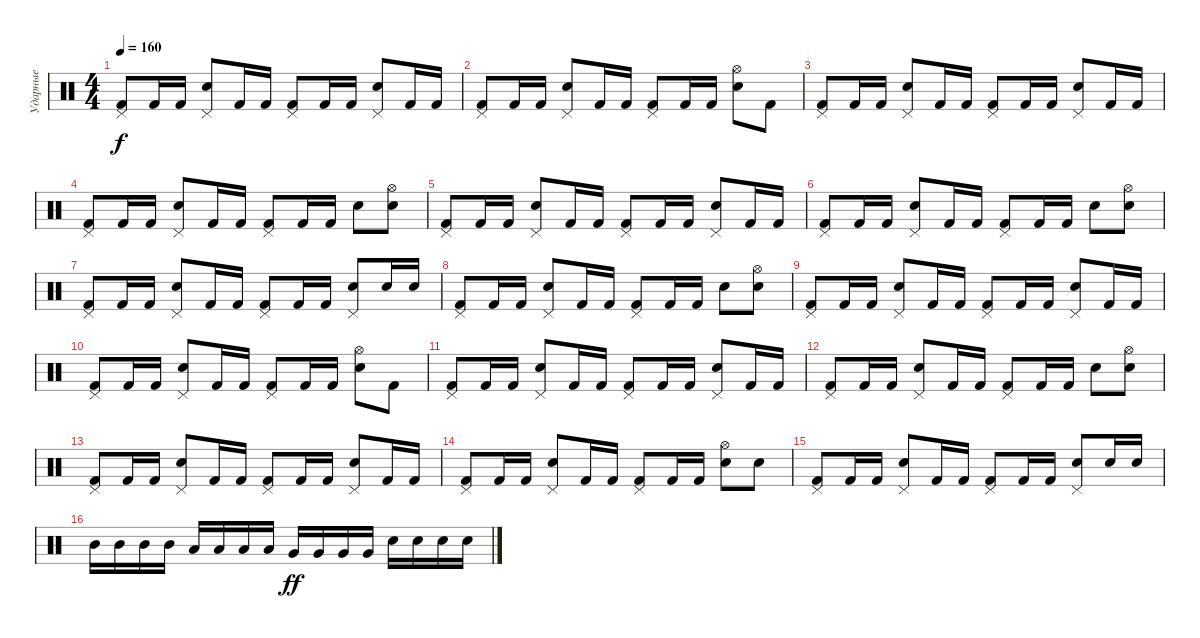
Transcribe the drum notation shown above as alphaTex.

\track ("Ударные" "Ударные") {instrument percussion}
\staff {score}
\articulation defaults
\ts (4 4)
\tempo 160
\clef neutral
\ks c
("Kick (hit) 2" "Pedal Hi-Hat (hit)").8{dy f} "Kick (hit) 2".16 "Kick (hit) 2".16 ("Snare (hit) 2" "Pedal Hi-Hat (hit)").8 "Kick (hit) 2".16 "Kick (hit) 2".16 ("Kick (hit) 2" "Pedal Hi-Hat (hit)").8 "Kick (hit) 2".16 "Kick (hit) 2".16 ("Snare (hit) 2" "Pedal Hi-Hat (hit)").8 "Kick (hit) 2".16 "Kick (hit) 2".16 |
("Kick (hit) 2" "Pedal Hi-Hat (hit)").8 "Kick (hit) 2".16 "Kick (hit) 2".16 ("Snare (hit) 2" "Pedal Hi-Hat (hit)").8 "Kick (hit) 2".16 "Kick (hit) 2".16 ("Kick (hit) 2" "Pedal Hi-Hat (hit)").8 "Kick (hit) 2".16 "Kick (hit) 2".16 ("Snare (hit) 2" "Hi-Hat (open)").8 "Kick (hit) 2".8 |
("Kick (hit) 2" "Pedal Hi-Hat (hit)").8 "Kick (hit) 2".16 "Kick (hit) 2".16 ("Snare (hit) 2" "Pedal Hi-Hat (hit)").8 "Kick (hit) 2".16 "Kick (hit) 2".16 ("Kick (hit) 2" "Pedal Hi-Hat (hit)").8 "Kick (hit) 2".16 "Kick (hit) 2".16 ("Snare (hit) 2" "Pedal Hi-Hat (hit)").8 "Kick (hit) 2".16 "Kick (hit) 2".16 |
("Kick (hit) 2" "Pedal Hi-Hat (hit)").8 "Kick (hit) 2".16 "Kick (hit) 2".16 ("Snare (hit) 2" "Pedal Hi-Hat (hit)").8 "Kick (hit) 2".16 "Kick (hit) 2".16 ("Kick (hit) 2" "Pedal Hi-Hat (hit)").8 "Kick (hit) 2".16 "Kick (hit) 2".16 "Snare (hit) 2".8 ("Snare (hit) 2" "Hi-Hat (open)").8 |
("Kick (hit) 2" "Pedal Hi-Hat (hit)").8 "Kick (hit) 2".16 "Kick (hit) 2".16 ("Snare (hit) 2" "Pedal Hi-Hat (hit)").8 "Kick (hit) 2".16 "Kick (hit) 2".16 ("Kick (hit) 2" "Pedal Hi-Hat (hit)").8 "Kick (hit) 2".16 "Kick (hit) 2".16 ("Snare (hit) 2" "Pedal Hi-Hat (hit)").8 "Kick (hit) 2".16 "Kick (hit) 2".16 |
("Kick (hit) 2" "Pedal Hi-Hat (hit)").8 "Kick (hit) 2".16 "Kick (hit) 2".16 ("Snare (hit) 2" "Pedal Hi-Hat (hit)").8 "Kick (hit) 2".16 "Kick (hit) 2".16 ("Kick (hit) 2" "Pedal Hi-Hat (hit)").8 "Kick (hit) 2".16 "Kick (hit) 2".16 "Snare (hit) 2".8 ("Snare (hit) 2" "Hi-Hat (open)").8 |
("Kick (hit) 2" "Pedal Hi-Hat (hit)").8 "Kick (hit) 2".16 "Kick (hit) 2".16 ("Snare (hit) 2" "Pedal Hi-Hat (hit)").8 "Kick (hit) 2".16 "Kick (hit) 2".16 ("Kick (hit) 2" "Pedal Hi-Hat (hit)").8 "Kick (hit) 2".16 "Kick (hit) 2".16 ("Snare (hit) 2" "Pedal Hi-Hat (hit)").8 "Snare (hit) 2".16 "Snare (hit) 2".16 |
("Kick (hit) 2" "Pedal Hi-Hat (hit)").8 "Kick (hit) 2".16 "Kick (hit) 2".16 ("Snare (hit) 2" "Pedal Hi-Hat (hit)").8 "Kick (hit) 2".16 "Kick (hit) 2".16 ("Kick (hit) 2" "Pedal Hi-Hat (hit)").8 "Kick (hit) 2".16 "Kick (hit) 2".16 "Snare (hit) 2".8 ("Snare (hit) 2" "Hi-Hat (open)").8 |
("Kick (hit) 2" "Pedal Hi-Hat (hit)").8 "Kick (hit) 2".16 "Kick (hit) 2".16 ("Snare (hit) 2" "Pedal Hi-Hat (hit)").8 "Kick (hit) 2".16 "Kick (hit) 2".16 ("Kick (hit) 2" "Pedal Hi-Hat (hit)").8 "Kick (hit) 2".16 "Kick (hit) 2".16 ("Snare (hit) 2" "Pedal Hi-Hat (hit)").8 "Kick (hit) 2".16 "Kick (hit) 2".16 |
("Kick (hit) 2" "Pedal Hi-Hat (hit)").8 "Kick (hit) 2".16 "Kick (hit) 2".16 ("Snare (hit) 2" "Pedal Hi-Hat (hit)").8 "Kick (hit) 2".16 "Kick (hit) 2".16 ("Kick (hit) 2" "Pedal Hi-Hat (hit)").8 "Kick (hit) 2".16 "Kick (hit) 2".16 ("Snare (hit) 2" "Hi-Hat (open)").8 "Kick (hit) 2".8 |
("Kick (hit) 2" "Pedal Hi-Hat (hit)").8 "Kick (hit) 2".16 "Kick (hit) 2".16 ("Snare (hit) 2" "Pedal Hi-Hat (hit)").8 "Kick (hit) 2".16 "Kick (hit) 2".16 ("Kick (hit) 2" "Pedal Hi-Hat (hit)").8 "Kick (hit) 2".16 "Kick (hit) 2".16 ("Snare (hit) 2" "Pedal Hi-Hat (hit)").8 "Kick (hit) 2".16 "Kick (hit) 2".16 |
("Kick (hit) 2" "Pedal Hi-Hat (hit)").8 "Kick (hit) 2".16 "Kick (hit) 2".16 ("Snare (hit) 2" "Pedal Hi-Hat (hit)").8 "Kick (hit) 2".16 "Kick (hit) 2".16 ("Kick (hit) 2" "Pedal Hi-Hat (hit)").8 "Kick (hit) 2".16 "Kick (hit) 2".16 "Snare (hit) 2".8 ("Snare (hit) 2" "Hi-Hat (open)").8 |
("Kick (hit) 2" "Pedal Hi-Hat (hit)").8 "Kick (hit) 2".16 "Kick (hit) 2".16 ("Snare (hit) 2" "Pedal Hi-Hat (hit)").8 "Kick (hit) 2".16 "Kick (hit) 2".16 ("Kick (hit) 2" "Pedal Hi-Hat (hit)").8 "Kick (hit) 2".16 "Kick (hit) 2".16 ("Snare (hit) 2" "Pedal Hi-Hat (hit)").8 "Kick (hit) 2".16 "Kick (hit) 2".16 |
("Kick (hit) 2" "Pedal Hi-Hat (hit)").8 "Kick (hit) 2".16 "Kick (hit) 2".16 ("Snare (hit) 2" "Pedal Hi-Hat (hit)").8 "Kick (hit) 2".16 "Kick (hit) 2".16 ("Kick (hit) 2" "Pedal Hi-Hat (hit)").8 "Kick (hit) 2".16 "Kick (hit) 2".16 ("Snare (hit) 2" "Hi-Hat (open)").8 "Snare (hit) 2".8 |
("Kick (hit) 2" "Pedal Hi-Hat (hit)").8 "Kick (hit) 2".16 "Kick (hit) 2".16 ("Snare (hit) 2" "Pedal Hi-Hat (hit)").8 "Kick (hit) 2".16 "Kick (hit) 2".16 ("Kick (hit) 2" "Pedal Hi-Hat (hit)").8 "Kick (hit) 2".16 "Kick (hit) 2".16 ("Snare (hit) 2" "Pedal Hi-Hat (hit)").8 "Snare (hit) 2".16 "Snare (hit) 2".16 |
"Mid Tom (hit)".16 "Mid Tom (hit)".16 "Mid Tom (hit)".16 "Mid Tom (hit)".16 "Low Tom (hit)".16 "Low Tom (hit)".16 "Low Tom (hit)".16 "Low Tom (hit)".16 "Very Low Tom (hit)".16{dy ff} "Very Low Tom (hit)".16 "Very Low Tom (hit)".16 "Very Low Tom (hit)".16 "Snare (hit) 2".16 "Snare (hit) 2".16 "Snare (hit) 2".16 "Snare (hit) 2".16
